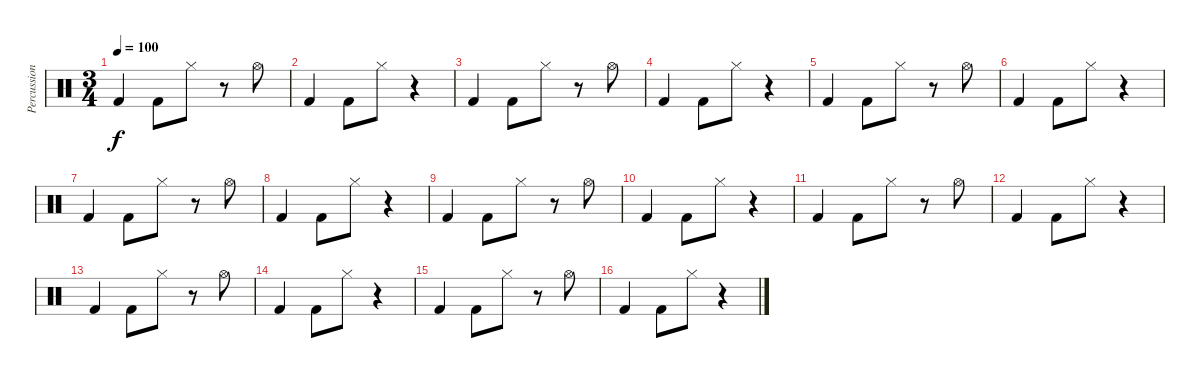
\track ("Percussion" "Percussion") {instrument percussion}
\staff {score}
\articulation defaults
\ts (3 4)
\tempo 100
\clef neutral
\ks c "Kick (hit) 2".4{dy f} "Kick (hit) 2".8 "Hi-Hat (closed)".8
r.8 "Hi-Hat (open)".8 |
"Kick (hit) 2".4 "Kick (hit) 2".8 "Hi-Hat (closed)".8 r.4 |
"Kick (hit) 2".4 "Kick (hit) 2".8 "Hi-Hat (closed)".8 r.8 "Hi-Hat (open)".8 |
"Kick (hit) 2".4 "Kick (hit) 2".8 "Hi-Hat (closed)".8 r.4 |
"Kick (hit) 2".4 "Kick (hit) 2".8 "Hi-Hat (closed)".8 r.8 "Hi-Hat (open)".8 |
"Kick (hit) 2".4 "Kick (hit) 2".8 "Hi-Hat (closed)".8 r.4 |
"Kick (hit) 2".4 "Kick (hit) 2".8 "Hi-Hat (closed)".8 r.8 "Hi-Hat (open)".8 |
"Kick (hit) 2".4 "Kick (hit) 2".8 "Hi-Hat (closed)".8 r.4 |
"Kick (hit) 2".4 "Kick (hit) 2".8 "Hi-Hat (closed)".8 r.8 "Hi-Hat (open)".8 |
"Kick (hit) 2".4 "Kick (hit) 2".8 "Hi-Hat (closed)".8 r.4 |
"Kick (hit) 2".4 "Kick (hit) 2".8 "Hi-Hat (closed)".8 r.8 "Hi-Hat (open)".8 |
"Kick (hit) 2".4 "Kick (hit) 2".8 "Hi-Hat (closed)".8 r.4 |
"Kick (hit) 2".4 "Kick (hit) 2".8 "Hi-Hat (closed)".8 r.8 "Hi-Hat (open)".8 |
"Kick (hit) 2".4 "Kick (hit) 2".8 "Hi-Hat (closed)".8 r.4 |
"Kick (hit) 2".4 "Kick (hit) 2".8 "Hi-Hat (closed)".8 r.8 "Hi-Hat (open)".8 |
"Kick (hit) 2".4 "Kick (hit) 2".8 "Hi-Hat (closed)".8 r.4
